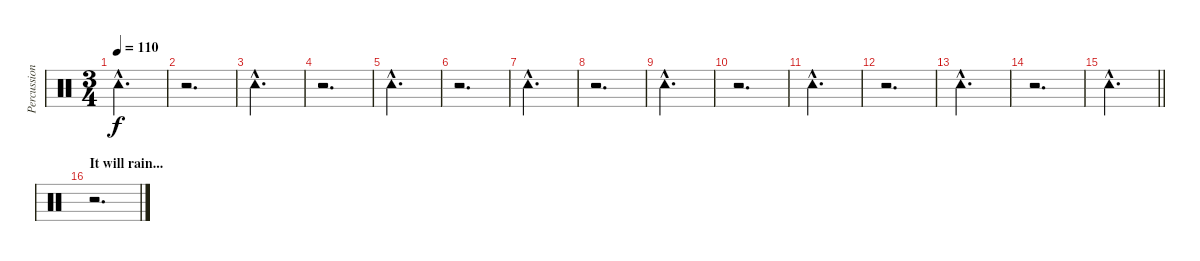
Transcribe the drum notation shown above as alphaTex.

\track ("Percussion" "Percussion") {instrument percussion}
\staff {score}
\articulation defaults
\ts (3 4)
\tempo 110
\clef neutral
\ks c "Tambourine (hit)"{hac}.2{d dy f}
|
r.2{d} |
"Tambourine (hit)"{hac}.2{d} |
r.2{d} |
"Tambourine (hit)"{hac}.2{d} |
r.2{d} |
"Tambourine (hit)"{hac}.2{d} |
r.2{d} |
"Tambourine (hit)"{hac}.2{d} |
r.2{d} |
"Tambourine (hit)"{hac}.2{d} |
r.2{d} |
"Tambourine (hit)"{hac}.2{d} |
r.2{d} |
\barLineRight lightlight "Tambourine (hit)"{hac}.2{d}
|
\section ("" "It will rain...")
r.2{d}
